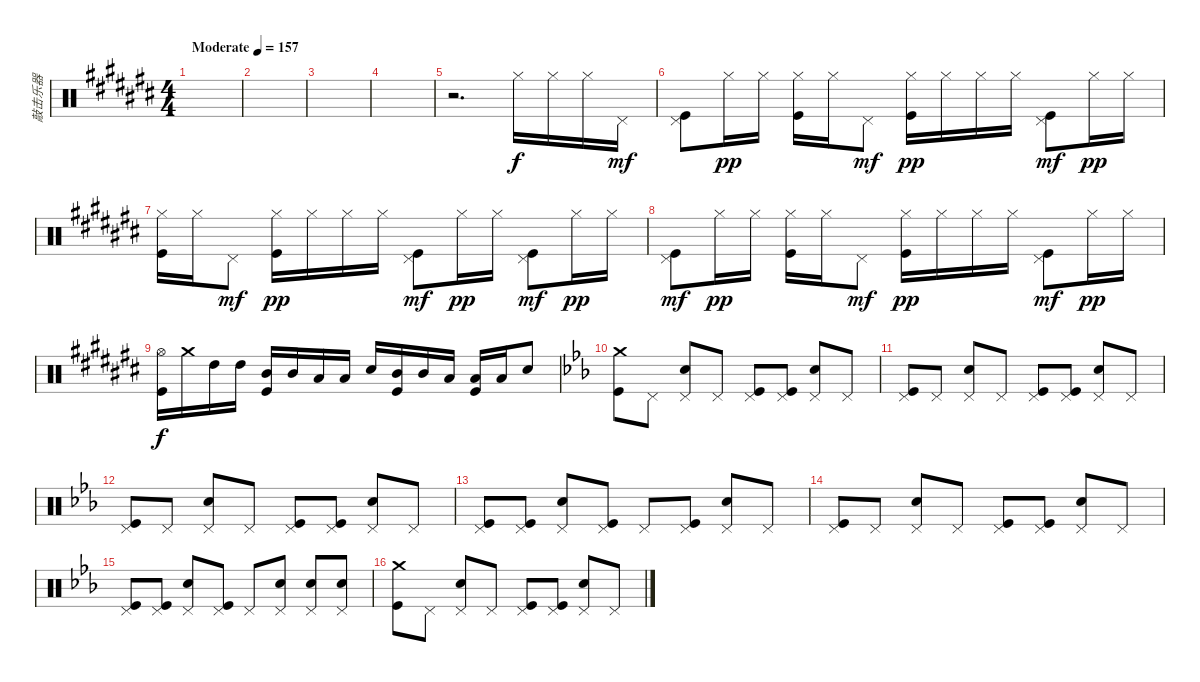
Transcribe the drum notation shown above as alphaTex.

\track ("敲击乐器" "敲击乐器") {instrument percussion}
\staff {score}
\articulation defaults
\ts (4 4)
\tempo (157 "Moderate")
\clef neutral
\ks c#
|
|
|
|
r.2{d} "Hi-Hat (closed)".16 "Hi-Hat (closed)".16 "Hi-Hat (closed)".16 "Pedal Hi-Hat (hit)".16{dy mf} |
("Pedal Hi-Hat (hit)" "Kick (hit)").8 "Hi-Hat (closed)".16{dy pp} "Hi-Hat (closed)".16 ("Hi-Hat (closed)" "Kick (hit)").16 "Hi-Hat (closed)".16 "Pedal Hi-Hat (hit)".8{dy mf} ("Hi-Hat (closed)" "Kick (hit)").16{dy pp} "Hi-Hat (closed)".16 "Hi-Hat (closed)".16 "Hi-Hat (closed)".16 ("Pedal Hi-Hat (hit)" "Kick (hit)").8{dy mf} "Hi-Hat (closed)".16{dy pp} "Hi-Hat (closed)".16 |
("Hi-Hat (closed)" "Kick (hit)").16 "Hi-Hat (closed)".16 "Pedal Hi-Hat (hit)".8{dy mf} ("Hi-Hat (closed)" "Kick (hit)").16{dy pp} "Hi-Hat (closed)".16 "Hi-Hat (closed)".16 "Hi-Hat (closed)".16 ("Pedal Hi-Hat (hit)" "Kick (hit)").8{dy mf} "Hi-Hat (closed)".16{dy pp} "Hi-Hat (closed)".16 ("Pedal Hi-Hat (hit)" "Kick (hit)").8{dy mf} "Hi-Hat (closed)".16{dy pp} "Hi-Hat (closed)".16 |
("Pedal Hi-Hat (hit)" "Kick (hit)").8{dy mf} "Hi-Hat (closed)".16{dy pp} "Hi-Hat (closed)".16 ("Hi-Hat (closed)" "Kick (hit)").16 "Hi-Hat (closed)".16 "Pedal Hi-Hat (hit)".8{dy mf} ("Hi-Hat (closed)" "Kick (hit)").16{dy pp} "Hi-Hat (closed)".16 "Hi-Hat (closed)".16 "Hi-Hat (closed)".16 ("Pedal Hi-Hat (hit)" "Kick (hit)").8{dy mf} "Hi-Hat (closed)".16{dy pp} "Hi-Hat (closed)".16 |
("Hi-Hat (open)" "Kick (hit)").16{dy f} "Crash medium (hit)".16 "High Tom (hit)".16 "High Tom (hit)".16 ("Mid Tom (hit)" "Kick (hit)").16 "Mid Tom (hit)".16 "Low Tom (hit)".16 "Low Tom (hit)".16 "Snare (hit) 2".16 ("Mid Tom (hit)" "Kick (hit)").16 "Mid Tom (hit)".16 "Low Tom (hit)".16 ("Low Tom (hit)" "Kick (hit)").16 "Low Tom (hit)".16 "Snare (hit) 2".8 |
\ks eb
("Crash medium (hit)" "Kick (hit)").8 "Pedal Hi-Hat (hit)".8 ("Pedal Hi-Hat (hit)" "Snare (hit) 2").8 "Pedal Hi-Hat (hit)".8 ("Pedal Hi-Hat (hit)" "Kick (hit)").8 ("Pedal Hi-Hat (hit)" "Kick (hit)").8 ("Pedal Hi-Hat (hit)" "Snare (hit) 2").8 "Pedal Hi-Hat (hit)".8 |
("Pedal Hi-Hat (hit)" "Kick (hit)").8 "Pedal Hi-Hat (hit)".8 ("Pedal Hi-Hat (hit)" "Snare (hit) 2").8 "Pedal Hi-Hat (hit)".8 ("Pedal Hi-Hat (hit)" "Kick (hit)").8 ("Pedal Hi-Hat (hit)" "Kick (hit)").8 ("Pedal Hi-Hat (hit)" "Snare (hit) 2").8 "Pedal Hi-Hat (hit)".8 |
("Pedal Hi-Hat (hit)" "Kick (hit)").8 "Pedal Hi-Hat (hit)".8 ("Pedal Hi-Hat (hit)" "Snare (hit) 2").8 "Pedal Hi-Hat (hit)".8 ("Pedal Hi-Hat (hit)" "Kick (hit)").8 ("Pedal Hi-Hat (hit)" "Kick (hit)").8 ("Pedal Hi-Hat (hit)" "Snare (hit) 2").8 "Pedal Hi-Hat (hit)".8 |
("Pedal Hi-Hat (hit)" "Kick (hit)").8 ("Pedal Hi-Hat (hit)" "Kick (hit)").8 ("Pedal Hi-Hat (hit)" "Snare (hit) 2").8 ("Pedal Hi-Hat (hit)" "Kick (hit)").8 "Pedal Hi-Hat (hit)".8 ("Pedal Hi-Hat (hit)" "Kick (hit)").8 ("Pedal Hi-Hat (hit)" "Snare (hit) 2").8 "Pedal Hi-Hat (hit)".8 |
("Pedal Hi-Hat (hit)" "Kick (hit)").8 "Pedal Hi-Hat (hit)".8 ("Pedal Hi-Hat (hit)" "Snare (hit) 2").8 "Pedal Hi-Hat (hit)".8 ("Pedal Hi-Hat (hit)" "Kick (hit)").8 ("Pedal Hi-Hat (hit)" "Kick (hit)").8 ("Pedal Hi-Hat (hit)" "Snare (hit) 2").8 "Pedal Hi-Hat (hit)".8 |
("Pedal Hi-Hat (hit)" "Kick (hit)").8 ("Pedal Hi-Hat (hit)" "Kick (hit)").8 ("Pedal Hi-Hat (hit)" "Snare (hit) 2").8 ("Pedal Hi-Hat (hit)" "Kick (hit)").8 "Pedal Hi-Hat (hit)".8 ("Pedal Hi-Hat (hit)" "Snare (hit) 2").8 ("Pedal Hi-Hat (hit)" "Snare (hit) 2").8 ("Pedal Hi-Hat (hit)" "Snare (hit) 2").8 |
("Crash medium (hit)" "Kick (hit)").8 "Pedal Hi-Hat (hit)".8 ("Pedal Hi-Hat (hit)" "Snare (hit) 2").8 "Pedal Hi-Hat (hit)".8 ("Pedal Hi-Hat (hit)" "Kick (hit)").8 ("Pedal Hi-Hat (hit)" "Kick (hit)").8 ("Pedal Hi-Hat (hit)" "Snare (hit) 2").8 "Pedal Hi-Hat (hit)".8
